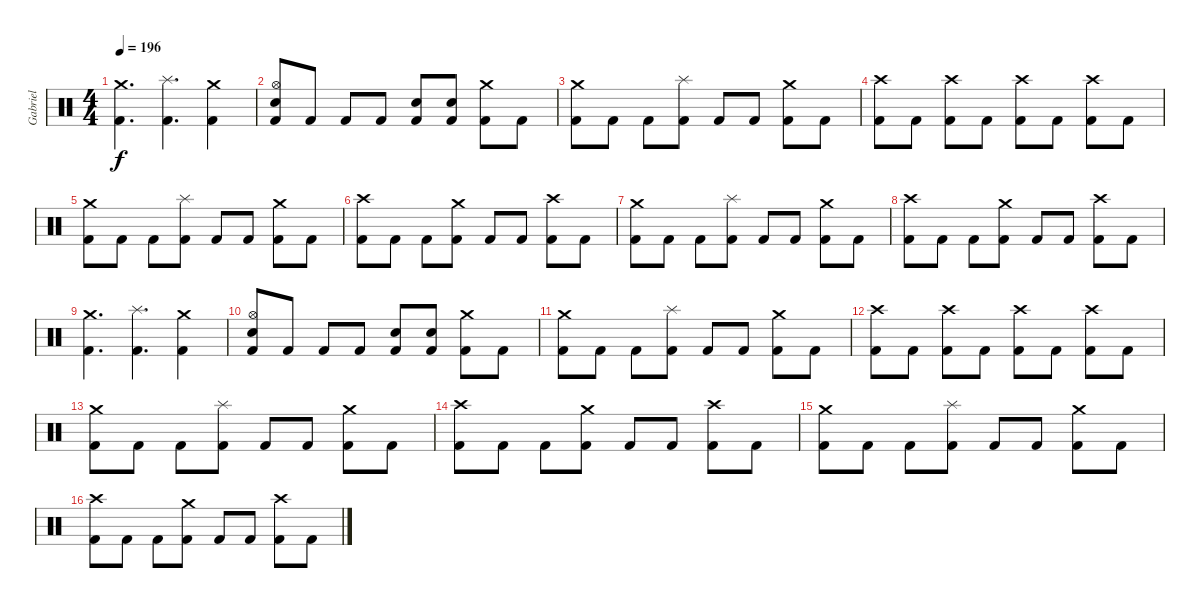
\track ("Gabriel" "Gabriel") {instrument percussion}
\staff {score}
\articulation defaults
\ts (4 4)
\tempo 196
\clef neutral
\ks c
("Crash medium (hit)" "Kick (hit) 2").4{d dy f} ("Splash (hit)" "Kick (hit) 2").4{d} ("Crash medium (hit)" "Kick (hit) 2").4 |
("Hi-Hat (open)" "Electric Snare (hit)" "Kick (hit) 2").8 "Kick (hit) 2".8 "Kick (hit) 2".8 "Kick (hit) 2".8 ("Electric Snare (hit)" "Kick (hit) 2").8 ("Electric Snare (hit)" "Kick (hit) 2").8 ("Crash medium (hit)" "Kick (hit) 2").8 "Kick (hit) 2".8 |
("Crash medium (hit)" "Kick (hit) 2").8 "Kick (hit) 2".8 "Kick (hit) 2".8 ("Splash (hit)" "Kick (hit) 2").8 "Kick (hit) 2".8 "Kick (hit) 2".8 ("Crash medium (hit)" "Kick (hit) 2").8 "Kick (hit) 2".8 |
("Crash high (hit)" "Kick (hit) 2").8 "Kick (hit) 2".8 ("Crash high (hit)" "Kick (hit) 2").8 "Kick (hit) 2".8 ("Crash high (hit)" "Kick (hit) 2").8 "Kick (hit) 2".8 ("Crash high (hit)" "Kick (hit) 2").8 "Kick (hit) 2".8 |
("Crash medium (hit)" "Kick (hit) 2").8 "Kick (hit) 2".8 "Kick (hit) 2".8 ("Splash (hit)" "Kick (hit) 2").8 "Kick (hit) 2".8 "Kick (hit) 2".8 ("Crash medium (hit)" "Kick (hit) 2").8 "Kick (hit) 2".8 |
("Crash high (hit)" "Kick (hit) 2").8 "Kick (hit) 2".8 "Kick (hit) 2".8 ("Crash medium (hit)" "Kick (hit) 2").8 "Kick (hit) 2".8 "Kick (hit) 2".8 ("Crash high (hit)" "Kick (hit) 2").8 "Kick (hit) 2".8 |
("Crash medium (hit)" "Kick (hit) 2").8 "Kick (hit) 2".8 "Kick (hit) 2".8 ("Splash (hit)" "Kick (hit) 2").8 "Kick (hit) 2".8 "Kick (hit) 2".8 ("Crash medium (hit)" "Kick (hit) 2").8 "Kick (hit) 2".8 |
("Crash high (hit)" "Kick (hit) 2").8 "Kick (hit) 2".8 "Kick (hit) 2".8 ("Crash medium (hit)" "Kick (hit) 2").8 "Kick (hit) 2".8 "Kick (hit) 2".8 ("Crash high (hit)" "Kick (hit) 2").8 "Kick (hit) 2".8 |
("Crash medium (hit)" "Kick (hit) 2").4{d} ("Splash (hit)" "Kick (hit) 2").4{d} ("Crash medium (hit)" "Kick (hit) 2").4 |
("Hi-Hat (open)" "Electric Snare (hit)" "Kick (hit) 2").8 "Kick (hit) 2".8 "Kick (hit) 2".8 "Kick (hit) 2".8 ("Electric Snare (hit)" "Kick (hit) 2").8 ("Electric Snare (hit)" "Kick (hit) 2").8 ("Crash medium (hit)" "Kick (hit) 2").8 "Kick (hit) 2".8 |
("Crash medium (hit)" "Kick (hit) 2").8 "Kick (hit) 2".8 "Kick (hit) 2".8 ("Splash (hit)" "Kick (hit) 2").8 "Kick (hit) 2".8 "Kick (hit) 2".8 ("Crash medium (hit)" "Kick (hit) 2").8 "Kick (hit) 2".8 |
("Crash high (hit)" "Kick (hit) 2").8 "Kick (hit) 2".8 ("Crash high (hit)" "Kick (hit) 2").8 "Kick (hit) 2".8 ("Crash high (hit)" "Kick (hit) 2").8 "Kick (hit) 2".8 ("Crash high (hit)" "Kick (hit) 2").8 "Kick (hit) 2".8 |
("Crash medium (hit)" "Kick (hit) 2").8 "Kick (hit) 2".8 "Kick (hit) 2".8 ("Splash (hit)" "Kick (hit) 2").8 "Kick (hit) 2".8 "Kick (hit) 2".8 ("Crash medium (hit)" "Kick (hit) 2").8 "Kick (hit) 2".8 |
("Crash high (hit)" "Kick (hit) 2").8 "Kick (hit) 2".8 "Kick (hit) 2".8 ("Crash medium (hit)" "Kick (hit) 2").8 "Kick (hit) 2".8 "Kick (hit) 2".8 ("Crash high (hit)" "Kick (hit) 2").8 "Kick (hit) 2".8 |
("Crash medium (hit)" "Kick (hit) 2").8 "Kick (hit) 2".8 "Kick (hit) 2".8 ("Splash (hit)" "Kick (hit) 2").8 "Kick (hit) 2".8 "Kick (hit) 2".8 ("Crash medium (hit)" "Kick (hit) 2").8 "Kick (hit) 2".8 |
("Crash high (hit)" "Kick (hit) 2").8 "Kick (hit) 2".8 "Kick (hit) 2".8 ("Crash medium (hit)" "Kick (hit) 2").8 "Kick (hit) 2".8 "Kick (hit) 2".8 ("Crash high (hit)" "Kick (hit) 2").8 "Kick (hit) 2".8
